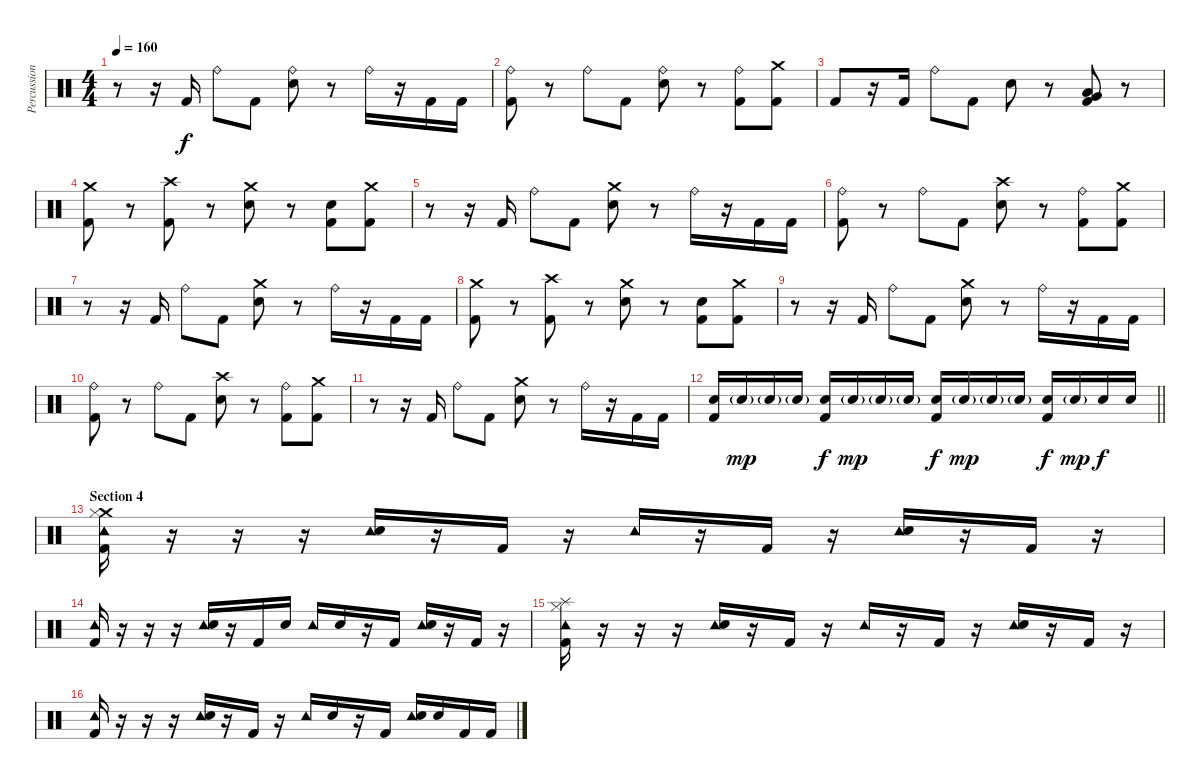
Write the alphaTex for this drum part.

\track ("Percussion" "Percussion") {instrument percussion}
\staff {score}
\articulation defaults
\ts (4 4)
\tempo 160
\clef neutral
\ks c
r.8{dy f} r.16 "Kick (hit) 2".16 "Ride (bell)".8 "Kick (hit) 2".8 ("Ride (bell)" "Electric Snare (hit)").8 r.8 "Ride (bell)".16 r.16 "Kick (hit) 2".16 "Kick (hit) 2".16 |
("Ride (bell)" "Kick (hit) 2").8 r.8 "Ride (bell)".8 "Kick (hit) 2".8 ("Ride (bell)" "Electric Snare (hit)").8 r.8 ("Ride (bell)" "Kick (hit) 2").8 ("Crash medium (hit)" "Kick (hit) 2").8 |
"Kick (hit) 2".8 r.16 "Kick (hit) 2".16 "Ride (bell)".8 "Kick (hit) 2".8 "Electric Snare (hit)".8 r.8 ("Low Tom (hit)" "Kick (hit) 2" "Very Low Tom (hit)").8{bd 60} r.8 |
("Crash medium (hit)" "Kick (hit) 2").8 r.8 ("Crash high (hit)" "Kick (hit) 2").8 r.8 ("Crash medium (hit)" "Electric Snare (hit)").8 r.8 ("Electric Snare (hit)" "Kick (hit) 2").8 ("Crash medium (hit)" "Kick (hit) 2").8 |
r.8 r.16 "Kick (hit) 2".16 "Ride (bell)".8 "Kick (hit) 2".8 ("Crash medium (hit)" "Electric Snare (hit)").8 r.8 "Ride (bell)".16 r.16 "Kick (hit) 2".16 "Kick (hit) 2".16 |
("Ride (bell)" "Kick (hit) 2").8 r.8 "Ride (bell)".8 "Kick (hit) 2".8 ("Crash high (hit)" "Electric Snare (hit)").8 r.8 ("Ride (bell)" "Kick (hit) 2").8 ("Crash medium (hit)" "Kick (hit) 2").8 |
r.8 r.16 "Kick (hit) 2".16 "Ride (bell)".8 "Kick (hit) 2".8 ("Crash medium (hit)" "Electric Snare (hit)").8 r.8 "Ride (bell)".16 r.16 "Kick (hit) 2".16 "Kick (hit) 2".16 |
("Crash medium (hit)" "Kick (hit) 2").8 r.8 ("Crash high (hit)" "Kick (hit) 2").8 r.8 ("Crash medium (hit)" "Electric Snare (hit)").8 r.8 ("Electric Snare (hit)" "Kick (hit) 2").8 ("Crash medium (hit)" "Kick (hit) 2").8 |
r.8 r.16 "Kick (hit) 2".16 "Ride (bell)".8 "Kick (hit) 2".8 ("Crash medium (hit)" "Electric Snare (hit)").8 r.8 "Ride (bell)".16 r.16 "Kick (hit) 2".16 "Kick (hit) 2".16 |
("Ride (bell)" "Kick (hit) 2").8 r.8 "Ride (bell)".8 "Kick (hit) 2".8 ("Crash high (hit)" "Electric Snare (hit)").8 r.8 ("Ride (bell)" "Kick (hit) 2").8 ("Crash medium (hit)" "Kick (hit) 2").8 |
r.8 r.16 "Kick (hit) 2".16 "Ride (bell)".8 "Kick (hit) 2".8 ("Crash medium (hit)" "Electric Snare (hit)").8 r.8 "Ride (bell)".16 r.16 "Kick (hit) 2".16 "Kick (hit) 2".16 |
\barLineRight lightlight
("Kick (hit) 2" "Electric Snare (hit)").16 "Electric Snare (hit)"{g}.16{dy mp} "Electric Snare (hit)"{g}.16 "Electric Snare (hit)"{g}.16 ("Kick (hit) 2" "Electric Snare (hit)").16{dy f} "Electric Snare (hit)"{g}.16{dy mp} "Electric Snare (hit)"{g}.16 "Electric Snare (hit)"{g}.16 ("Kick (hit) 2" "Electric Snare (hit)").16{dy f} "Electric Snare (hit)"{g}.16{dy mp} "Electric Snare (hit)"{g}.16 "Electric Snare (hit)"{g}.16 ("Kick (hit) 2" "Electric Snare (hit)").16{dy f} "Electric Snare (hit)"{g}.16{dy mp} "Electric Snare (hit)".16{dy f} "Electric Snare (hit)".16 |
\section ("" "Section 4")
("Crash medium (hit)" "Tambourine (hit)" "Hi-Hat (closed)" "Kick (hit) 2").16 r.16 r.16 r.16 ("Tambourine (hit)" "Electric Snare (hit)").16 r.16 "Kick (hit) 2".16 r.16 "Tambourine (hit)".16 r.16 "Kick (hit) 2".16 r.16 ("Tambourine (hit)" "Electric Snare (hit)").16 r.16 "Kick (hit) 2".16 r.16 |
("Tambourine (hit)" "Kick (hit) 2").16 r.16 r.16 r.16 ("Tambourine (hit)" "Electric Snare (hit)").16 r.16 "Kick (hit) 2".16 "Electric Snare (hit)".16 "Tambourine (hit)".16 "Electric Snare (hit)".16 r.16 "Kick (hit) 2".16 ("Tambourine (hit)" "Electric Snare (hit)").16 r.16 "Kick (hit) 2".16 r.16 |
("Splash (hit)" "Tambourine (hit)" "Hi-Hat (closed)" "Kick (hit) 2").16 r.16 r.16 r.16 ("Tambourine (hit)" "Electric Snare (hit)").16 r.16 "Kick (hit) 2".16 r.16 "Tambourine (hit)".16 r.16 "Kick (hit) 2".16 r.16 ("Tambourine (hit)" "Electric Snare (hit)").16 r.16 "Kick (hit) 2".16 r.16 |
("Tambourine (hit)" "Kick (hit) 2").16 r.16 r.16 r.16 ("Tambourine (hit)" "Electric Snare (hit)").16 r.16 "Kick (hit) 2".16 r.16 "Tambourine (hit)".16 "Electric Snare (hit)".16 r.16 "Kick (hit) 2".16 ("Tambourine (hit)" "Electric Snare (hit)").16 "Electric Snare (hit)".16 "Kick (hit) 2".16 "Kick (hit) 2".16
